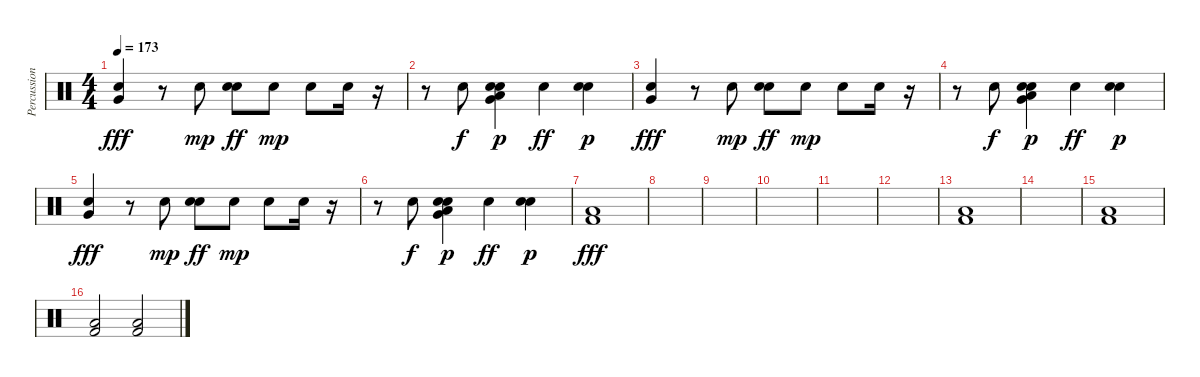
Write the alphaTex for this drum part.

\track ("Percussion" "Percussion") {instrument percussion}
\staff {score}
\articulation defaults
\ts (4 4)
\tempo 173
\clef neutral
\ks c
("Hand Clap (hit)" "Very Low Tom (hit)").4{dy fff} r.8 "Hand Clap (hit)".8{dy mp} ("Snare (hit) 2" "Hand Clap (hit)").8{dy ff} "Hand Clap (hit)".8{dy mp} "Hand Clap (hit)".8 "Hand Clap (hit)".16 r.16 |
r.8 "Hand Clap (hit)".8{dy f} ("Very Low Tom (hit)" "Hand Clap (hit)" "Snare (hit) 2" "Low Floor Tom (hit)").4{dy p} "Hand Clap (hit)".4{dy ff} ("Snare (hit) 2" "Hand Clap (hit)").4{dy p} |
("Hand Clap (hit)" "Very Low Tom (hit)").4{dy fff} r.8 "Hand Clap (hit)".8{dy mp} ("Snare (hit) 2" "Hand Clap (hit)").8{dy ff} "Hand Clap (hit)".8{dy mp} "Hand Clap (hit)".8 "Hand Clap (hit)".16 r.16 |
r.8 "Hand Clap (hit)".8{dy f} ("Very Low Tom (hit)" "Hand Clap (hit)" "Snare (hit) 2" "Low Floor Tom (hit)").4{dy p} "Hand Clap (hit)".4{dy ff} ("Snare (hit) 2" "Hand Clap (hit)").4{dy p} |
("Hand Clap (hit)" "Very Low Tom (hit)").4{dy fff} r.8 "Hand Clap (hit)".8{dy mp} ("Snare (hit) 2" "Hand Clap (hit)").8{dy ff} "Hand Clap (hit)".8{dy mp} "Hand Clap (hit)".8 "Hand Clap (hit)".16 r.16 |
r.8 "Hand Clap (hit)".8{dy f} ("Very Low Tom (hit)" "Hand Clap (hit)" "Snare (hit) 2" "Low Floor Tom (hit)").4{dy p} "Hand Clap (hit)".4{dy ff} ("Snare (hit) 2" "Hand Clap (hit)").4{dy p} |
("Kick (hit) 2" "Low Tom (hit)").1{dy fff} |
|
|
|
|
|
("Kick (hit) 2" "Low Tom (hit)").1 |
|
("Kick (hit) 2" "Low Tom (hit)").1 |
("Kick (hit) 2" "Low Tom (hit)").2 ("Kick (hit) 2" "Low Tom (hit)").2
